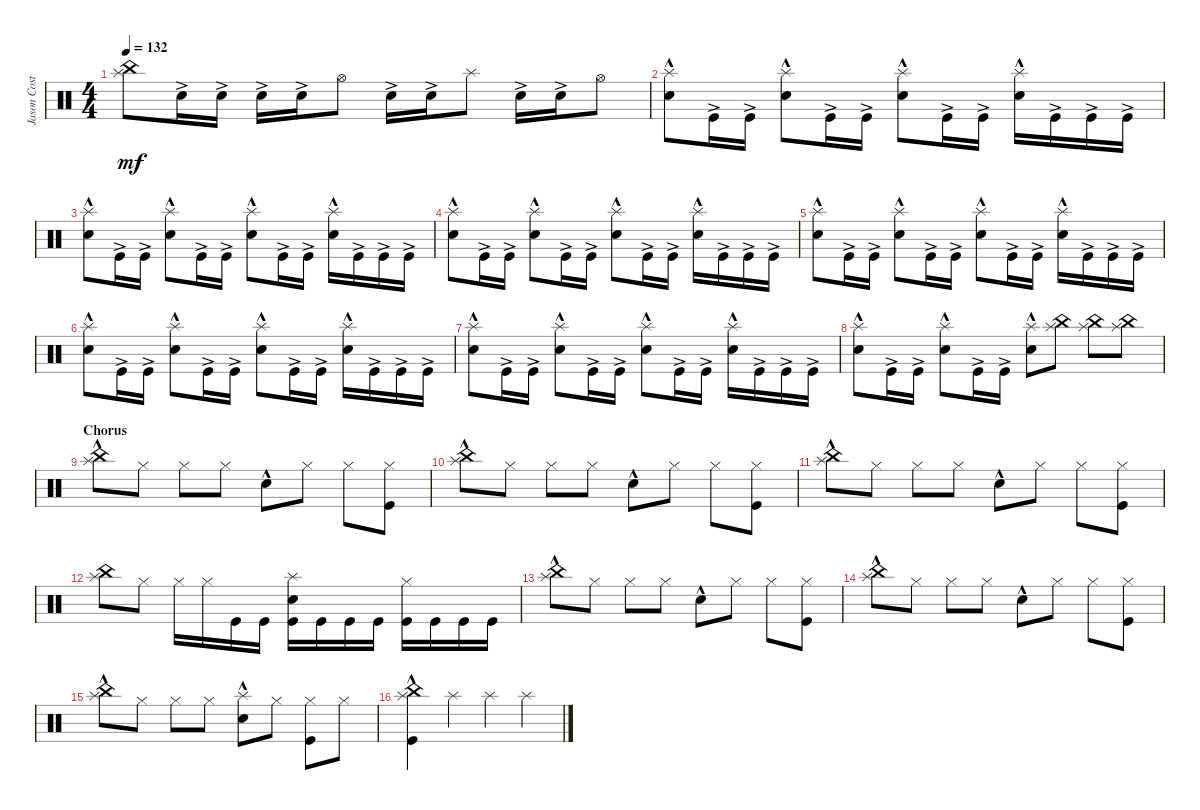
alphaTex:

\track ("Jason Costa" "Jason Cost") {instrument percussion}
\staff {score}
\articulation defaults
\ts (4 4)
\tempo 132
\clef neutral
\ks c
("China (hit)" "Splash (hit)").8{dy mf} "Snare (hit) 2"{ac}.16 "Snare (hit) 2"{ac}.16 "Snare (hit) 2"{ac}.16 "Snare (hit) 2"{ac}.16 "Hi-Hat (open)".8 "Snare (hit) 2"{ac}.16 "Snare (hit) 2"{ac}.16 "Splash (hit)".8 "Snare (hit) 2"{ac}.16 "Snare (hit) 2"{ac}.16 "Hi-Hat (open)".8 |
("Snare (hit) 2"{hac} "Splash (hit)").8 "Kick (hit)"{ac}.16 "Kick (hit)"{ac}.16 ("Snare (hit) 2"{hac} "Splash (hit)").8 "Kick (hit)"{ac}.16 "Kick (hit)"{ac}.16 ("Snare (hit) 2"{hac} "Splash (hit)").8 "Kick (hit)"{ac}.16 "Kick (hit)"{ac}.16 ("Snare (hit) 2"{hac} "Splash (hit)").16 "Kick (hit)"{ac}.16 "Kick (hit)"{ac}.16 "Kick (hit)"{ac}.16 |
("Snare (hit) 2"{hac} "Splash (hit)").8 "Kick (hit)"{ac}.16 "Kick (hit)"{ac}.16 ("Snare (hit) 2"{hac} "Splash (hit)").8 "Kick (hit)"{ac}.16 "Kick (hit)"{ac}.16 ("Snare (hit) 2"{hac} "Splash (hit)").8 "Kick (hit)"{ac}.16 "Kick (hit)"{ac}.16 ("Snare (hit) 2"{hac} "Splash (hit)").16 "Kick (hit)"{ac}.16 "Kick (hit)"{ac}.16 "Kick (hit)"{ac}.16 |
("Snare (hit) 2"{hac} "Splash (hit)").8 "Kick (hit)"{ac}.16 "Kick (hit)"{ac}.16 ("Snare (hit) 2"{hac} "Splash (hit)").8 "Kick (hit)"{ac}.16 "Kick (hit)"{ac}.16 ("Snare (hit) 2"{hac} "Splash (hit)").8 "Kick (hit)"{ac}.16 "Kick (hit)"{ac}.16 ("Snare (hit) 2"{hac} "Splash (hit)").16 "Kick (hit)"{ac}.16 "Kick (hit)"{ac}.16 "Kick (hit)"{ac}.16 |
("Snare (hit) 2"{hac} "Splash (hit)").8 "Kick (hit)"{ac}.16 "Kick (hit)"{ac}.16 ("Snare (hit) 2"{hac} "Splash (hit)").8 "Kick (hit)"{ac}.16 "Kick (hit)"{ac}.16 ("Snare (hit) 2"{hac} "Splash (hit)").8 "Kick (hit)"{ac}.16 "Kick (hit)"{ac}.16 ("Snare (hit) 2"{hac} "Splash (hit)").16 "Kick (hit)"{ac}.16 "Kick (hit)"{ac}.16 "Kick (hit)"{ac}.16 |
("Snare (hit) 2"{hac} "Splash (hit)").8 "Kick (hit)"{ac}.16 "Kick (hit)"{ac}.16 ("Snare (hit) 2"{hac} "Splash (hit)").8 "Kick (hit)"{ac}.16 "Kick (hit)"{ac}.16 ("Snare (hit) 2"{hac} "Splash (hit)").8 "Kick (hit)"{ac}.16 "Kick (hit)"{ac}.16 ("Snare (hit) 2"{hac} "Splash (hit)").16 "Kick (hit)"{ac}.16 "Kick (hit)"{ac}.16 "Kick (hit)"{ac}.16 |
("Snare (hit) 2"{hac} "Splash (hit)").8 "Kick (hit)"{ac}.16 "Kick (hit)"{ac}.16 ("Snare (hit) 2"{hac} "Splash (hit)").8 "Kick (hit)"{ac}.16 "Kick (hit)"{ac}.16 ("Snare (hit) 2"{hac} "Splash (hit)").8 "Kick (hit)"{ac}.16 "Kick (hit)"{ac}.16 ("Snare (hit) 2"{hac} "Splash (hit)").16 "Kick (hit)"{ac}.16 "Kick (hit)"{ac}.16 "Kick (hit)"{ac}.16 |
("Snare (hit) 2"{hac} "Splash (hit)").8 "Kick (hit)"{ac}.16 "Kick (hit)"{ac}.16 ("Snare (hit) 2"{hac} "Splash (hit)").8 "Kick (hit)"{ac}.16 "Kick (hit)"{ac}.16 ("Snare (hit) 2"{hac} "Splash (hit)").8 ("Splash (hit)" "China (hit)").8 ("Splash (hit)" "China (hit)").8 ("Splash (hit)" "China (hit)").8 |
\section ("" "Chorus")
("China (hit)"{hac} "Splash (hit)").8 "Hi-Hat (closed)".8 "Hi-Hat (closed)".8 "Hi-Hat (closed)".8 "Snare (hit) 2"{hac}.8 "Hi-Hat (closed)".8 "Hi-Hat (closed)".8 ("Hi-Hat (closed)" "Kick (hit)").8 |
("Splash (hit)" "China (hit)"{hac}).8 "Hi-Hat (closed)".8 "Hi-Hat (closed)".8 "Hi-Hat (closed)".8 "Snare (hit) 2"{hac}.8 "Hi-Hat (closed)".8 "Hi-Hat (closed)".8 ("Kick (hit)" "Hi-Hat (closed)").8 |
("Splash (hit)" "China (hit)"{hac}).8 "Hi-Hat (closed)".8 "Hi-Hat (closed)".8 "Hi-Hat (closed)".8 "Snare (hit) 2"{hac}.8 "Hi-Hat (closed)".8 "Hi-Hat (closed)".8 ("Kick (hit)" "Hi-Hat (closed)").8 |
("Splash (hit)" "China (hit)").8 "Hi-Hat (closed)".8 "Hi-Hat (closed)".16 "Hi-Hat (closed)".16 "Kick (hit)".16 "Kick (hit)".16 ("Snare (hit) 2" "Splash (hit)" "Kick (hit)").16 "Kick (hit)".16 "Kick (hit)".16 "Kick (hit)".16 ("Hi-Hat (closed)" "Kick (hit)").16 "Kick (hit)".16 "Kick (hit)".16 "Kick (hit)".16 |
("China (hit)"{hac} "Splash (hit)").8 "Hi-Hat (closed)".8 "Hi-Hat (closed)".8 "Hi-Hat (closed)".8 "Snare (hit) 2"{hac}.8 "Hi-Hat (closed)".8 "Hi-Hat (closed)".8 ("Hi-Hat (closed)" "Kick (hit)").8 |
("China (hit)"{hac} "Splash (hit)").8 "Hi-Hat (closed)".8 "Hi-Hat (closed)".8 "Hi-Hat (closed)".8 "Snare (hit) 2"{hac}.8 "Hi-Hat (closed)".8 "Hi-Hat (closed)".8 ("Hi-Hat (closed)" "Kick (hit)").8 |
("Splash (hit)" "China (hit)"{hac}).8 "Hi-Hat (closed)".8 "Hi-Hat (closed)".8 "Hi-Hat (closed)".8 ("Snare (hit) 2" "Splash (hit)"{hac}).8 "Hi-Hat (closed)".8 ("Hi-Hat (closed)" "Kick (hit)").8 "Hi-Hat (closed)".8 |
("China (hit)" "Splash (hit)"{hac} "Kick (hit)").4 "Splash (hit)".4 "Splash (hit)".4 "Splash (hit)".4
